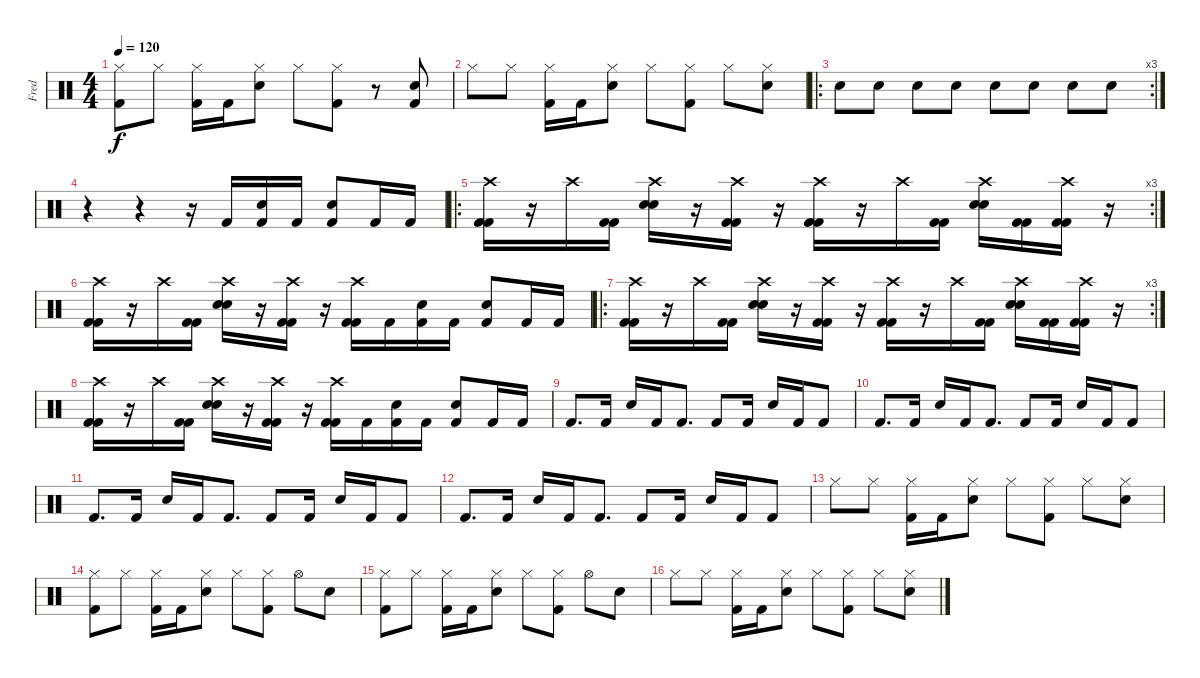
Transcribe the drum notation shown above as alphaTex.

\track ("Fred " "Fred ") {instrument percussion}
\staff {score}
\articulation defaults
\ts (4 4)
\tempo 120
\clef neutral
\ks c
("Hi-Hat (closed)" "Kick (hit) 2").8{dy f} "Hi-Hat (closed)".8 ("Hi-Hat (closed)" "Kick (hit) 2").16 "Kick (hit) 2".16 ("Hi-Hat (closed)" "Electric Snare (hit)").8 "Hi-Hat (closed)".8 ("Hi-Hat (closed)" "Kick (hit) 2").8 r.8 ("Electric Snare (hit)" "Kick (hit) 2").8 |
"Hi-Hat (closed)".8 "Hi-Hat (closed)".8 ("Hi-Hat (closed)" "Kick (hit) 2").16 "Kick (hit) 2".16 ("Hi-Hat (closed)" "Electric Snare (hit)").8 "Hi-Hat (closed)".8 ("Hi-Hat (closed)" "Kick (hit) 2").8 "Hi-Hat (closed)".8 ("Hi-Hat (closed)" "Electric Snare (hit)").8 |
\ro
\rc 3 "Snare (hit) 2".8 "Snare (hit) 2".8 "Snare (hit) 2".8 "Snare (hit) 2".8 "Snare (hit) 2".8 "Snare (hit) 2".8 "Snare (hit) 2".8 "Snare (hit) 2".8
|
r.4 r.4 r.16 "Kick (hit) 2".16 ("Kick (hit) 2" "Electric Snare (hit)").16 "Kick (hit) 2".16 ("Kick (hit) 2" "Electric Snare (hit)").8 "Kick (hit) 2".16 "Kick (hit) 2".16 |
\ro
\rc 3
("Crash high (hit)" "Kick (hit) 2" "Kick (hit) 2").16 r.16 "Crash high (hit)".16 ("Kick (hit) 2" "Kick (hit) 2").16 ("Crash high (hit)" "Electric Snare (hit)" "Electric Snare (hit)").16 r.16 ("Crash high (hit)" "Kick (hit) 2" "Kick (hit) 2").16 r.16 ("Crash high (hit)" "Kick (hit) 2" "Kick (hit) 2").16 r.16 "Crash high (hit)".16 ("Kick (hit) 2" "Kick (hit) 2").16 ("Crash high (hit)" "Electric Snare (hit)" "Electric Snare (hit)").16 ("Kick (hit) 2" "Kick (hit) 2").16 ("Crash high (hit)" "Kick (hit) 2" "Kick (hit) 2").16 r.16 |
("Crash high (hit)" "Kick (hit) 2" "Kick (hit) 2").16 r.16 "Crash high (hit)".16 ("Kick (hit) 2" "Kick (hit) 2").16 ("Crash high (hit)" "Electric Snare (hit)" "Electric Snare (hit)").16 r.16 ("Crash high (hit)" "Kick (hit) 2" "Kick (hit) 2").16 r.16 ("Crash high (hit)" "Kick (hit) 2" "Kick (hit) 2").16 "Kick (hit) 2".16 ("Kick (hit) 2" "Electric Snare (hit)").16 "Kick (hit) 2".16 ("Kick (hit) 2" "Electric Snare (hit)").8 "Kick (hit) 2".16 "Kick (hit) 2".16 |
\ro
\rc 3
("Crash high (hit)" "Kick (hit) 2" "Kick (hit) 2").16 r.16 "Crash high (hit)".16 ("Kick (hit) 2" "Kick (hit) 2").16 ("Crash high (hit)" "Electric Snare (hit)" "Electric Snare (hit)").16 r.16 ("Crash high (hit)" "Kick (hit) 2" "Kick (hit) 2").16 r.16 ("Crash high (hit)" "Kick (hit) 2" "Kick (hit) 2").16 r.16 "Crash high (hit)".16 ("Kick (hit) 2" "Kick (hit) 2").16 ("Crash high (hit)" "Electric Snare (hit)" "Electric Snare (hit)").16 ("Kick (hit) 2" "Kick (hit) 2").16 ("Crash high (hit)" "Kick (hit) 2" "Kick (hit) 2").16 r.16 |
("Crash high (hit)" "Kick (hit) 2" "Kick (hit) 2").16 r.16 "Crash high (hit)".16 ("Kick (hit) 2" "Kick (hit) 2").16 ("Crash high (hit)" "Electric Snare (hit)" "Electric Snare (hit)").16 r.16 ("Crash high (hit)" "Kick (hit) 2" "Kick (hit) 2").16 r.16 ("Crash high (hit)" "Kick (hit) 2" "Kick (hit) 2").16 "Kick (hit) 2".16 ("Kick (hit) 2" "Electric Snare (hit)").16 "Kick (hit) 2".16 ("Kick (hit) 2" "Electric Snare (hit)").8 "Kick (hit) 2".16 "Kick (hit) 2".16 |
"Kick (hit) 2".8{d} "Kick (hit) 2".16 "Electric Snare (hit)".16 "Kick (hit) 2".16 "Kick (hit) 2".8{d} "Kick (hit) 2".8 "Kick (hit) 2".16 "Electric Snare (hit)".16 "Kick (hit) 2".16 "Kick (hit) 2".8 |
"Kick (hit) 2".8{d} "Kick (hit) 2".16 "Electric Snare (hit)".16 "Kick (hit) 2".16 "Kick (hit) 2".8{d} "Kick (hit) 2".8 "Kick (hit) 2".16 "Electric Snare (hit)".16 "Kick (hit) 2".16 "Kick (hit) 2".8 |
"Kick (hit) 2".8{d} "Kick (hit) 2".16 "Electric Snare (hit)".16 "Kick (hit) 2".16 "Kick (hit) 2".8{d} "Kick (hit) 2".8 "Kick (hit) 2".16 "Electric Snare (hit)".16 "Kick (hit) 2".16 "Kick (hit) 2".8 |
"Kick (hit) 2".8{d} "Kick (hit) 2".16 "Electric Snare (hit)".16 "Kick (hit) 2".16 "Kick (hit) 2".8{d} "Kick (hit) 2".8 "Kick (hit) 2".16 "Electric Snare (hit)".16 "Kick (hit) 2".16 "Kick (hit) 2".8 |
"Hi-Hat (closed)".8 "Hi-Hat (closed)".8 ("Hi-Hat (closed)" "Kick (hit) 2").16 "Kick (hit) 2".16 ("Hi-Hat (closed)" "Electric Snare (hit)").8 "Hi-Hat (closed)".8 ("Hi-Hat (closed)" "Kick (hit) 2").8 "Hi-Hat (closed)".8 ("Hi-Hat (closed)" "Electric Snare (hit)").8 |
("Hi-Hat (closed)" "Kick (hit) 2").8 "Hi-Hat (closed)".8 ("Hi-Hat (closed)" "Kick (hit) 2").16 "Kick (hit) 2".16 ("Hi-Hat (closed)" "Electric Snare (hit)").8 "Hi-Hat (closed)".8 ("Hi-Hat (closed)" "Kick (hit) 2").8 "Hi-Hat (open)".8 "Electric Snare (hit)".8 |
("Hi-Hat (closed)" "Kick (hit) 2").8 "Hi-Hat (closed)".8 ("Hi-Hat (closed)" "Kick (hit) 2").16 "Kick (hit) 2".16 ("Hi-Hat (closed)" "Electric Snare (hit)").8 "Hi-Hat (closed)".8 ("Hi-Hat (closed)" "Kick (hit) 2").8 "Hi-Hat (open)".8 "Electric Snare (hit)".8 |
"Hi-Hat (closed)".8 "Hi-Hat (closed)".8 ("Hi-Hat (closed)" "Kick (hit) 2").16 "Kick (hit) 2".16 ("Hi-Hat (closed)" "Electric Snare (hit)").8 "Hi-Hat (closed)".8 ("Hi-Hat (closed)" "Kick (hit) 2").8 "Hi-Hat (closed)".8 ("Hi-Hat (closed)" "Electric Snare (hit)").8
